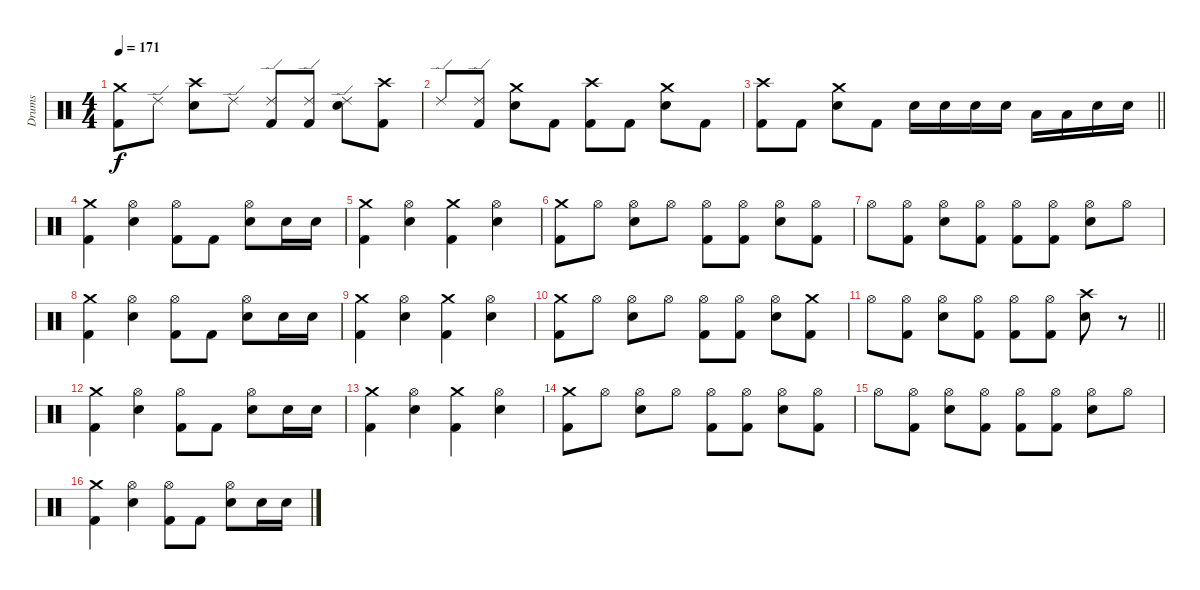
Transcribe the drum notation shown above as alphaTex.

\track ("Drums" "Drums") {instrument percussion}
\staff {score}
\articulation defaults
\ts (4 4)
\tempo 171
\clef neutral
\ks c
("Crash medium (hit)" "Kick (hit) 2").8{dy f} "Ride (edge) 2".8 ("Crash high (hit)" "Electric Snare (hit)").8 "Ride (edge) 2".8 ("Ride (edge) 2" "Kick (hit) 2").8 ("Ride (edge) 2" "Kick (hit) 2").8 ("Ride (edge) 2" "Electric Snare (hit)").8 ("Crash high (hit)" "Kick (hit) 2").8 |
"Ride (edge) 2".8 ("Ride (edge) 2" "Kick (hit) 2").8 ("Crash medium (hit)" "Electric Snare (hit)").8 "Kick (hit) 2".8 ("Crash high (hit)" "Kick (hit) 2").8 "Kick (hit) 2".8 ("Crash medium (hit)" "Electric Snare (hit)").8 "Kick (hit) 2".8 |
\barLineRight lightlight
("Crash high (hit)" "Kick (hit) 2").8 "Kick (hit) 2".8 ("Crash medium (hit)" "Electric Snare (hit)").8 "Kick (hit) 2".8 "Electric Snare (hit)".16 "Electric Snare (hit)".16 "Electric Snare (hit)".16 "Electric Snare (hit)".16 "Low Tom (hit)".16 "Low Tom (hit)".16 "Electric Snare (hit)".16 "Electric Snare (hit)".16 |
("Crash medium (hit)" "Kick (hit) 2").4 ("Hi-Hat (open)" "Electric Snare (hit)").4 ("Hi-Hat (open)" "Kick (hit) 2").8 "Kick (hit) 2".8 ("Hi-Hat (open)" "Electric Snare (hit)").8 "Electric Snare (hit)".16 "Electric Snare (hit)".16 |
("Crash medium (hit)" "Kick (hit) 2").4 ("Hi-Hat (open)" "Electric Snare (hit)").4 ("Crash medium (hit)" "Kick (hit) 2").4 ("Hi-Hat (open)" "Electric Snare (hit)").4 |
("Crash medium (hit)" "Kick (hit) 2").8 "Hi-Hat (open)".8 ("Hi-Hat (open)" "Electric Snare (hit)").8 "Hi-Hat (open)".8 ("Hi-Hat (open)" "Kick (hit) 2").8 ("Hi-Hat (open)" "Kick (hit) 2").8 ("Hi-Hat (open)" "Electric Snare (hit)").8 ("Hi-Hat (open)" "Kick (hit) 2").8 |
"Hi-Hat (open)".8 ("Hi-Hat (open)" "Kick (hit) 2").8 ("Hi-Hat (open)" "Electric Snare (hit)").8 ("Hi-Hat (open)" "Kick (hit) 2").8 ("Hi-Hat (open)" "Kick (hit) 2").8 ("Hi-Hat (open)" "Kick (hit) 2").8 ("Hi-Hat (open)" "Electric Snare (hit)").8 "Hi-Hat (open)".8 |
("Crash medium (hit)" "Kick (hit) 2").4 ("Hi-Hat (open)" "Electric Snare (hit)").4 ("Hi-Hat (open)" "Kick (hit) 2").8 "Kick (hit) 2".8 ("Hi-Hat (open)" "Electric Snare (hit)").8 "Electric Snare (hit)".16 "Electric Snare (hit)".16 |
("Crash medium (hit)" "Kick (hit) 2").4 ("Hi-Hat (open)" "Electric Snare (hit)").4 ("Crash medium (hit)" "Kick (hit) 2").4 ("Hi-Hat (open)" "Electric Snare (hit)").4 |
("Crash medium (hit)" "Kick (hit) 2").8 "Hi-Hat (open)".8 ("Hi-Hat (open)" "Electric Snare (hit)").8 "Hi-Hat (open)".8 ("Hi-Hat (open)" "Kick (hit) 2").8 ("Hi-Hat (open)" "Kick (hit) 2").8 ("Hi-Hat (open)" "Electric Snare (hit)").8 ("Crash medium (hit)" "Kick (hit) 2").8 |
\barLineRight lightlight "Hi-Hat (open)".8
("Hi-Hat (open)" "Kick (hit) 2").8 ("Hi-Hat (open)" "Electric Snare (hit)").8 ("Hi-Hat (open)" "Kick (hit) 2").8 ("Hi-Hat (open)" "Kick (hit) 2").8 ("Hi-Hat (open)" "Kick (hit) 2").8 ("Crash high (hit)" "Electric Snare (hit)").8 r.8 |
("Crash medium (hit)" "Kick (hit) 2").4 ("Hi-Hat (open)" "Electric Snare (hit)").4 ("Hi-Hat (open)" "Kick (hit) 2").8 "Kick (hit) 2".8 ("Hi-Hat (open)" "Electric Snare (hit)").8 "Electric Snare (hit)".16 "Electric Snare (hit)".16 |
("Crash medium (hit)" "Kick (hit) 2").4 ("Hi-Hat (open)" "Electric Snare (hit)").4 ("Crash medium (hit)" "Kick (hit) 2").4 ("Hi-Hat (open)" "Electric Snare (hit)").4 |
("Crash medium (hit)" "Kick (hit) 2").8 "Hi-Hat (open)".8 ("Hi-Hat (open)" "Electric Snare (hit)").8 "Hi-Hat (open)".8 ("Hi-Hat (open)" "Kick (hit) 2").8 ("Hi-Hat (open)" "Kick (hit) 2").8 ("Hi-Hat (open)" "Electric Snare (hit)").8 ("Hi-Hat (open)" "Kick (hit) 2").8 |
"Hi-Hat (open)".8 ("Hi-Hat (open)" "Kick (hit) 2").8 ("Hi-Hat (open)" "Electric Snare (hit)").8 ("Hi-Hat (open)" "Kick (hit) 2").8 ("Hi-Hat (open)" "Kick (hit) 2").8 ("Hi-Hat (open)" "Kick (hit) 2").8 ("Hi-Hat (open)" "Electric Snare (hit)").8 "Hi-Hat (open)".8 |
("Crash medium (hit)" "Kick (hit) 2").4 ("Hi-Hat (open)" "Electric Snare (hit)").4 ("Hi-Hat (open)" "Kick (hit) 2").8 "Kick (hit) 2".8 ("Hi-Hat (open)" "Electric Snare (hit)").8 "Electric Snare (hit)".16 "Electric Snare (hit)".16
